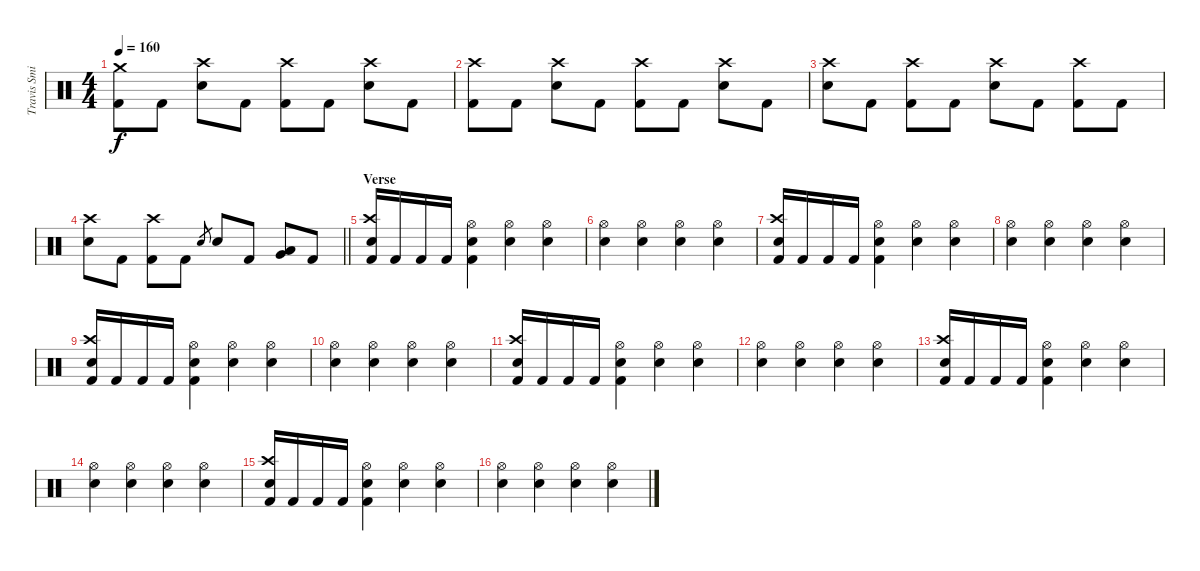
\track ("Travis Smith" "Travis Smi") {instrument percussion}
\staff {score}
\articulation defaults
\ts (4 4)
\tempo 160
\clef neutral
\ks c
("Crash medium (hit)" "Kick (hit) 2").8{dy f} "Kick (hit) 2".8 ("Crash high (hit)" "Electric Snare (hit)").8 "Kick (hit) 2".8 ("Crash high (hit)" "Kick (hit) 2").8 "Kick (hit) 2".8 ("Crash high (hit)" "Electric Snare (hit)").8 "Kick (hit) 2".8 |
("Crash high (hit)" "Kick (hit) 2").8 "Kick (hit) 2".8 ("Crash high (hit)" "Electric Snare (hit)").8 "Kick (hit) 2".8 ("Crash high (hit)" "Kick (hit) 2").8 "Kick (hit) 2".8 ("Crash high (hit)" "Electric Snare (hit)").8 "Kick (hit) 2".8 |
("Crash high (hit)" "Electric Snare (hit)").8 "Kick (hit) 2".8 ("Crash high (hit)" "Kick (hit) 2").8 "Kick (hit) 2".8 ("Crash high (hit)" "Electric Snare (hit)").8 "Kick (hit) 2".8 ("Crash high (hit)" "Kick (hit) 2").8 "Kick (hit) 2".8 |
\barLineRight lightlight
("Crash high (hit)" "Electric Snare (hit)").8 "Kick (hit) 2".8 ("Crash high (hit)" "Kick (hit) 2").8 "Kick (hit) 2".8 "Electric Snare (hit)".8{gr} "Electric Snare (hit)".8 "Kick (hit) 2".8 ("Very Low Tom (hit)" "Low Floor Tom (hit)").8 "Kick (hit) 2".8 |
\section ("" "Verse")
("Crash high (hit)" "Electric Snare (hit)" "Kick (hit) 2").16 "Kick (hit) 2".16 "Kick (hit) 2".16 "Kick (hit) 2".16 ("Hi-Hat (open)" "Electric Snare (hit)" "Kick (hit) 2").4 ("Hi-Hat (open)" "Electric Snare (hit)").4 ("Hi-Hat (open)" "Electric Snare (hit)").4 |
("Hi-Hat (open)" "Electric Snare (hit)").4 ("Hi-Hat (open)" "Electric Snare (hit)").4 ("Hi-Hat (open)" "Electric Snare (hit)").4 ("Hi-Hat (open)" "Electric Snare (hit)").4 |
("Crash high (hit)" "Electric Snare (hit)" "Kick (hit) 2").16 "Kick (hit) 2".16 "Kick (hit) 2".16 "Kick (hit) 2".16 ("Hi-Hat (open)" "Electric Snare (hit)" "Kick (hit) 2").4 ("Hi-Hat (open)" "Electric Snare (hit)").4 ("Hi-Hat (open)" "Electric Snare (hit)").4 |
("Hi-Hat (open)" "Electric Snare (hit)").4 ("Hi-Hat (open)" "Electric Snare (hit)").4 ("Hi-Hat (open)" "Electric Snare (hit)").4 ("Hi-Hat (open)" "Electric Snare (hit)").4 |
("Crash high (hit)" "Electric Snare (hit)" "Kick (hit) 2").16 "Kick (hit) 2".16 "Kick (hit) 2".16 "Kick (hit) 2".16 ("Hi-Hat (open)" "Electric Snare (hit)" "Kick (hit) 2").4 ("Hi-Hat (open)" "Electric Snare (hit)").4 ("Hi-Hat (open)" "Electric Snare (hit)").4 |
("Hi-Hat (open)" "Electric Snare (hit)").4 ("Hi-Hat (open)" "Electric Snare (hit)").4 ("Hi-Hat (open)" "Electric Snare (hit)").4 ("Hi-Hat (open)" "Electric Snare (hit)").4 |
("Crash high (hit)" "Electric Snare (hit)" "Kick (hit) 2").16 "Kick (hit) 2".16 "Kick (hit) 2".16 "Kick (hit) 2".16 ("Hi-Hat (open)" "Electric Snare (hit)" "Kick (hit) 2").4 ("Hi-Hat (open)" "Electric Snare (hit)").4 ("Hi-Hat (open)" "Electric Snare (hit)").4 |
("Hi-Hat (open)" "Electric Snare (hit)").4 ("Hi-Hat (open)" "Electric Snare (hit)").4 ("Hi-Hat (open)" "Electric Snare (hit)").4 ("Hi-Hat (open)" "Electric Snare (hit)").4 |
("Crash high (hit)" "Electric Snare (hit)" "Kick (hit) 2").16 "Kick (hit) 2".16 "Kick (hit) 2".16 "Kick (hit) 2".16 ("Hi-Hat (open)" "Electric Snare (hit)" "Kick (hit) 2").4 ("Hi-Hat (open)" "Electric Snare (hit)").4 ("Hi-Hat (open)" "Electric Snare (hit)").4 |
("Hi-Hat (open)" "Electric Snare (hit)").4 ("Hi-Hat (open)" "Electric Snare (hit)").4 ("Hi-Hat (open)" "Electric Snare (hit)").4 ("Hi-Hat (open)" "Electric Snare (hit)").4 |
("Crash high (hit)" "Electric Snare (hit)" "Kick (hit) 2").16 "Kick (hit) 2".16 "Kick (hit) 2".16 "Kick (hit) 2".16 ("Hi-Hat (open)" "Electric Snare (hit)" "Kick (hit) 2").4 ("Hi-Hat (open)" "Electric Snare (hit)").4 ("Hi-Hat (open)" "Electric Snare (hit)").4 |
("Hi-Hat (open)" "Electric Snare (hit)").4 ("Hi-Hat (open)" "Electric Snare (hit)").4 ("Hi-Hat (open)" "Electric Snare (hit)").4 ("Hi-Hat (open)" "Electric Snare (hit)").4
